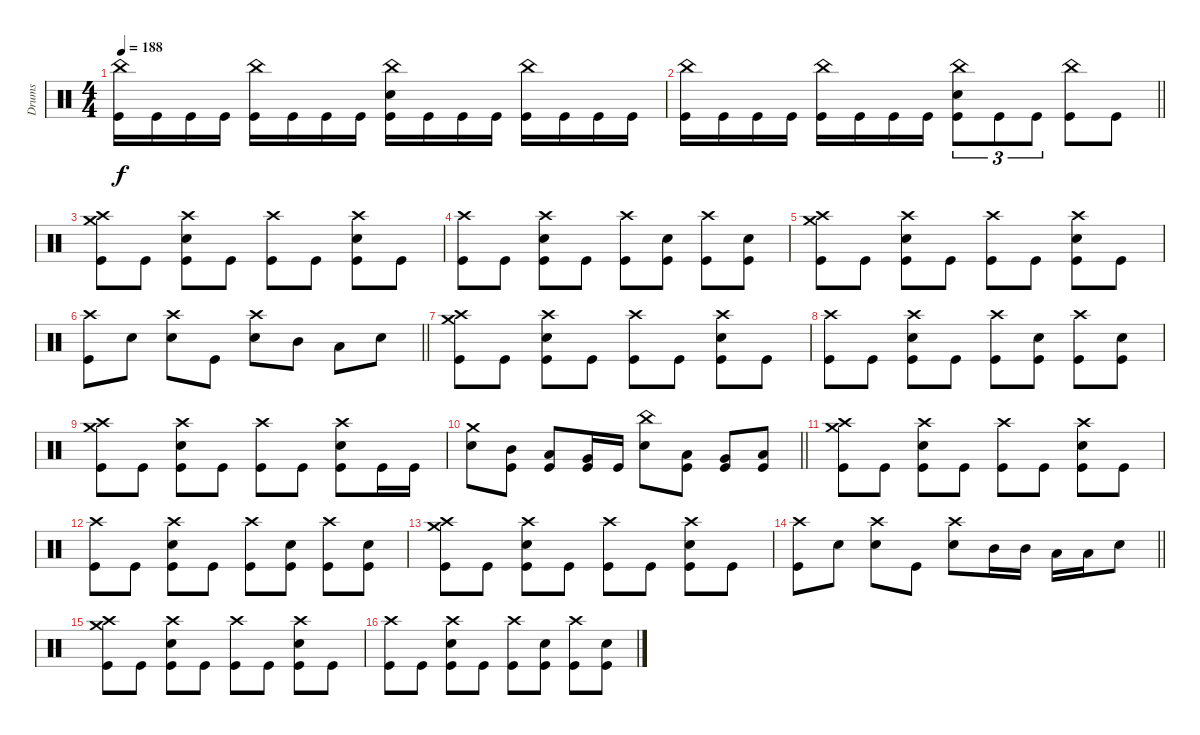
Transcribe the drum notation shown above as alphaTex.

\track ("Drums" "Drums") {instrument percussion}
\staff
\articulation defaults
\ts (4 4)
\tempo 188
\clef neutral
\ks c
("China (hit)" "Kick (hit)").16{dy f} "Kick (hit)".16 "Kick (hit)".16 "Kick (hit)".16 ("China (hit)" "Kick (hit)").16 "Kick (hit)".16 "Kick (hit)".16 "Kick (hit)".16 ("China (hit)" "Electric Snare (hit)" "Kick (hit)").16 "Kick (hit)".16 "Kick (hit)".16 "Kick (hit)".16 ("China (hit)" "Kick (hit)").16 "Kick (hit)".16 "Kick (hit)".16 "Kick (hit)".16 |
\barLineRight lightlight
("China (hit)" "Kick (hit)").16 "Kick (hit)".16 "Kick (hit)".16 "Kick (hit)".16 ("China (hit)" "Kick (hit)").16 "Kick (hit)".16 "Kick (hit)".16 "Kick (hit)".16 ("China (hit)" "Electric Snare (hit)" "Kick (hit)").8{tu (3 2)} "Kick (hit)".8{tu (3 2)} "Kick (hit)".8{tu (3 2)} ("China (hit)" "Kick (hit)").8 "Kick (hit)".8 |
\section ("" "")
("Crash high (hit)" "Crash medium (hit)" "Kick (hit)").8 "Kick (hit)".8 ("Crash high (hit)" "Electric Snare (hit)" "Kick (hit)").8 "Kick (hit)".8 ("Crash high (hit)" "Kick (hit)").8 "Kick (hit)".8 ("Crash high (hit)" "Electric Snare (hit)" "Kick (hit)").8 "Kick (hit)".8 |
("Crash high (hit)" "Kick (hit)").8 "Kick (hit)".8 ("Crash high (hit)" "Electric Snare (hit)" "Kick (hit)").8 "Kick (hit)".8 ("Crash high (hit)" "Kick (hit)").8 ("Electric Snare (hit)" "Kick (hit)").8 ("Crash high (hit)" "Kick (hit)").8 ("Electric Snare (hit)" "Kick (hit)").8 |
("Crash high (hit)" "Crash medium (hit)" "Kick (hit)").8 "Kick (hit)".8 ("Crash high (hit)" "Electric Snare (hit)" "Kick (hit)").8 "Kick (hit)".8 ("Crash high (hit)" "Kick (hit)").8 "Kick (hit)".8 ("Crash high (hit)" "Electric Snare (hit)" "Kick (hit)").8 "Kick (hit)".8 |
\barLineRight lightlight
("Crash high (hit)" "Kick (hit)").8 "Electric Snare (hit)".8 ("Crash high (hit)" "Electric Snare (hit)").8 "Kick (hit)".8 ("Crash high (hit)" "Electric Snare (hit)").8 "Mid Tom (hit)".8 "Low Tom (hit)".8 "Electric Snare (hit)".8 |
("Crash high (hit)" "Crash medium (hit)" "Kick (hit)").8 "Kick (hit)".8 ("Crash high (hit)" "Electric Snare (hit)" "Kick (hit)").8 "Kick (hit)".8 ("Crash high (hit)" "Kick (hit)").8 "Kick (hit)".8 ("Crash high (hit)" "Electric Snare (hit)" "Kick (hit)").8 "Kick (hit)".8 |
("Crash high (hit)" "Kick (hit)").8 "Kick (hit)".8 ("Crash high (hit)" "Electric Snare (hit)" "Kick (hit)").8 "Kick (hit)".8 ("Crash high (hit)" "Kick (hit)").8 ("Electric Snare (hit)" "Kick (hit)").8 ("Crash high (hit)" "Kick (hit)").8 ("Electric Snare (hit)" "Kick (hit)").8 |
("Crash high (hit)" "Crash medium (hit)" "Kick (hit)").8 "Kick (hit)".8 ("Crash high (hit)" "Electric Snare (hit)" "Kick (hit)").8 "Kick (hit)".8 ("Crash high (hit)" "Kick (hit)").8 "Kick (hit)".8 ("Crash high (hit)" "Electric Snare (hit)" "Kick (hit)").8 "Kick (hit)".16 "Kick (hit)".16 |
\barLineRight lightlight
("Crash medium (hit)" "Electric Snare (hit)").8 ("Mid Tom (hit)" "Kick (hit)").8 ("Low Tom (hit)" "Kick (hit)").8 ("Very Low Tom (hit)" "Kick (hit)").16 "Kick (hit)".16 ("China (hit)" "Electric Snare (hit)").8 ("Low Tom (hit)" "Kick (hit)").8 ("Very Low Tom (hit)" "Kick (hit)").8 ("Low Floor Tom (hit)" "Kick (hit)").8 |
("Crash high (hit)" "Crash medium (hit)" "Kick (hit)").8 "Kick (hit)".8 ("Crash high (hit)" "Electric Snare (hit)" "Kick (hit)").8 "Kick (hit)".8 ("Crash high (hit)" "Kick (hit)").8 "Kick (hit)".8 ("Crash high (hit)" "Electric Snare (hit)" "Kick (hit)").8 "Kick (hit)".8 |
("Crash high (hit)" "Kick (hit)").8 "Kick (hit)".8 ("Crash high (hit)" "Electric Snare (hit)" "Kick (hit)").8 "Kick (hit)".8 ("Crash high (hit)" "Kick (hit)").8 ("Electric Snare (hit)" "Kick (hit)").8 ("Crash high (hit)" "Kick (hit)").8 ("Electric Snare (hit)" "Kick (hit)").8 |
("Crash high (hit)" "Crash medium (hit)" "Kick (hit)").8 "Kick (hit)".8 ("Crash high (hit)" "Electric Snare (hit)" "Kick (hit)").8 "Kick (hit)".8 ("Crash high (hit)" "Kick (hit)").8 "Kick (hit)".8 ("Crash high (hit)" "Electric Snare (hit)" "Kick (hit)").8 "Kick (hit)".8 |
\barLineRight lightlight
("Crash high (hit)" "Kick (hit)").8 "Electric Snare (hit)".8 ("Crash high (hit)" "Electric Snare (hit)").8 "Kick (hit)".8 ("Crash high (hit)" "Electric Snare (hit)").8 "Mid Tom (hit)".16 "Mid Tom (hit)".16 "Low Tom (hit)".16 "Low Tom (hit)".16 "Electric Snare (hit)".8 |
("Crash high (hit)" "Crash medium (hit)" "Kick (hit)").8 "Kick (hit)".8 ("Crash high (hit)" "Electric Snare (hit)" "Kick (hit)").8 "Kick (hit)".8 ("Crash high (hit)" "Kick (hit)").8 "Kick (hit)".8 ("Crash high (hit)" "Electric Snare (hit)" "Kick (hit)").8 "Kick (hit)".8 |
("Crash high (hit)" "Kick (hit)").8 "Kick (hit)".8 ("Crash high (hit)" "Electric Snare (hit)" "Kick (hit)").8 "Kick (hit)".8 ("Crash high (hit)" "Kick (hit)").8 ("Electric Snare (hit)" "Kick (hit)").8 ("Crash high (hit)" "Kick (hit)").8 ("Electric Snare (hit)" "Kick (hit)").8
